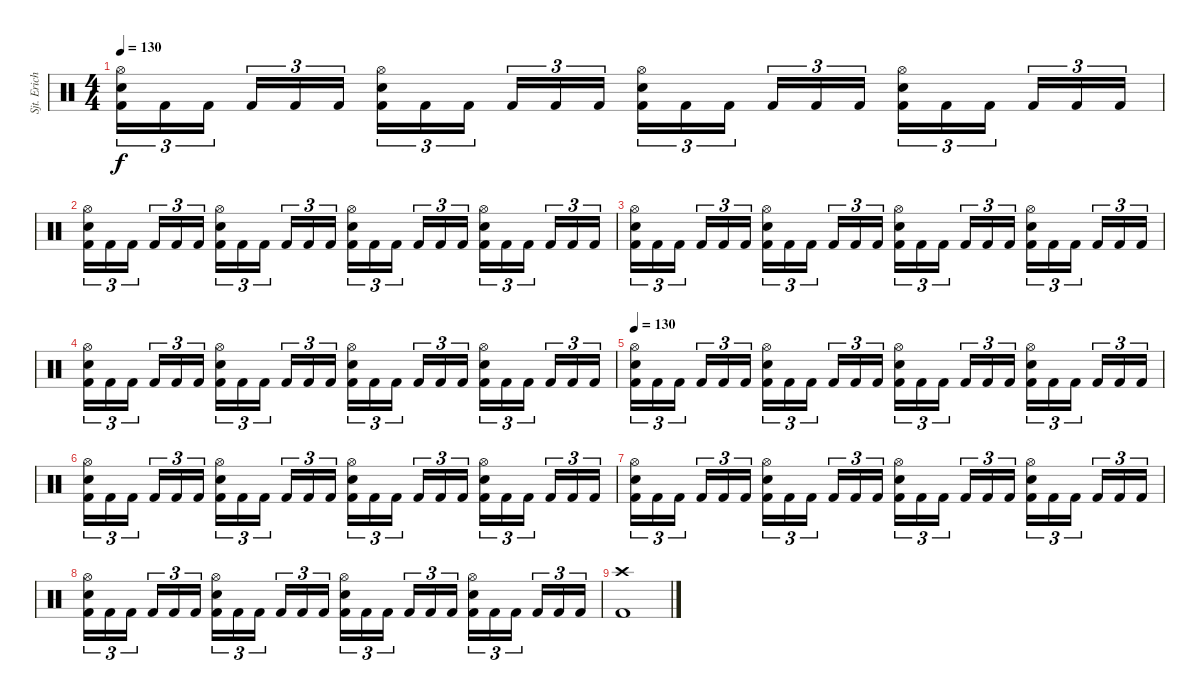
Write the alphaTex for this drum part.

\track ("Sjt. Erichsen" "Sjt. Erich") {instrument percussion}
\staff {score}
\articulation defaults
\ts (4 4)
\tempo 130
\clef neutral
\ks c
("Hi-Hat (open)" "Electric Snare (hit)" "Kick (hit) 2").16{tu (3 2) dy f} "Kick (hit) 2".16{tu (3 2)} "Kick (hit) 2".16{tu (3 2) beam splitsecondary} "Kick (hit) 2".16{tu (3 2)} "Kick (hit) 2".16{tu (3 2)} "Kick (hit) 2".16{tu (3 2)} ("Hi-Hat (open)" "Electric Snare (hit)" "Kick (hit) 2").16{tu (3 2)} "Kick (hit) 2".16{tu (3 2)} "Kick (hit) 2".16{tu (3 2) beam splitsecondary} "Kick (hit) 2".16{tu (3 2)} "Kick (hit) 2".16{tu (3 2)} "Kick (hit) 2".16{tu (3 2)} ("Hi-Hat (open)" "Electric Snare (hit)" "Kick (hit) 2").16{tu (3 2)} "Kick (hit) 2".16{tu (3 2)} "Kick (hit) 2".16{tu (3 2) beam splitsecondary} "Kick (hit) 2".16{tu (3 2)} "Kick (hit) 2".16{tu (3 2)} "Kick (hit) 2".16{tu (3 2)} ("Hi-Hat (open)" "Electric Snare (hit)" "Kick (hit) 2").16{tu (3 2)} "Kick (hit) 2".16{tu (3 2)} "Kick (hit) 2".16{tu (3 2) beam splitsecondary} "Kick (hit) 2".16{tu (3 2)} "Kick (hit) 2".16{tu (3 2)} "Kick (hit) 2".16{tu (3 2)} |
("Hi-Hat (open)" "Electric Snare (hit)" "Kick (hit) 2").16{tu (3 2)} "Kick (hit) 2".16{tu (3 2)} "Kick (hit) 2".16{tu (3 2) beam splitsecondary} "Kick (hit) 2".16{tu (3 2)} "Kick (hit) 2".16{tu (3 2)} "Kick (hit) 2".16{tu (3 2)} ("Hi-Hat (open)" "Electric Snare (hit)" "Kick (hit) 2").16{tu (3 2)} "Kick (hit) 2".16{tu (3 2)} "Kick (hit) 2".16{tu (3 2) beam splitsecondary} "Kick (hit) 2".16{tu (3 2)} "Kick (hit) 2".16{tu (3 2)} "Kick (hit) 2".16{tu (3 2)} ("Hi-Hat (open)" "Electric Snare (hit)" "Kick (hit) 2").16{tu (3 2)} "Kick (hit) 2".16{tu (3 2)} "Kick (hit) 2".16{tu (3 2) beam splitsecondary} "Kick (hit) 2".16{tu (3 2)} "Kick (hit) 2".16{tu (3 2)} "Kick (hit) 2".16{tu (3 2)} ("Hi-Hat (open)" "Electric Snare (hit)" "Kick (hit) 2").16{tu (3 2)} "Kick (hit) 2".16{tu (3 2)} "Kick (hit) 2".16{tu (3 2) beam splitsecondary} "Kick (hit) 2".16{tu (3 2)} "Kick (hit) 2".16{tu (3 2)} "Kick (hit) 2".16{tu (3 2)} |
("Hi-Hat (open)" "Electric Snare (hit)" "Kick (hit) 2").16{tu (3 2)} "Kick (hit) 2".16{tu (3 2)} "Kick (hit) 2".16{tu (3 2) beam splitsecondary} "Kick (hit) 2".16{tu (3 2)} "Kick (hit) 2".16{tu (3 2)} "Kick (hit) 2".16{tu (3 2)} ("Hi-Hat (open)" "Electric Snare (hit)" "Kick (hit) 2").16{tu (3 2)} "Kick (hit) 2".16{tu (3 2)} "Kick (hit) 2".16{tu (3 2) beam splitsecondary} "Kick (hit) 2".16{tu (3 2)} "Kick (hit) 2".16{tu (3 2)} "Kick (hit) 2".16{tu (3 2)} ("Hi-Hat (open)" "Electric Snare (hit)" "Kick (hit) 2").16{tu (3 2)} "Kick (hit) 2".16{tu (3 2)} "Kick (hit) 2".16{tu (3 2) beam splitsecondary} "Kick (hit) 2".16{tu (3 2)} "Kick (hit) 2".16{tu (3 2)} "Kick (hit) 2".16{tu (3 2)} ("Hi-Hat (open)" "Electric Snare (hit)" "Kick (hit) 2").16{tu (3 2)} "Kick (hit) 2".16{tu (3 2)} "Kick (hit) 2".16{tu (3 2) beam splitsecondary} "Kick (hit) 2".16{tu (3 2)} "Kick (hit) 2".16{tu (3 2)} "Kick (hit) 2".16{tu (3 2)} |
("Hi-Hat (open)" "Electric Snare (hit)" "Kick (hit) 2").16{tu (3 2)} "Kick (hit) 2".16{tu (3 2)} "Kick (hit) 2".16{tu (3 2) beam splitsecondary} "Kick (hit) 2".16{tu (3 2)} "Kick (hit) 2".16{tu (3 2)} "Kick (hit) 2".16{tu (3 2)} ("Hi-Hat (open)" "Electric Snare (hit)" "Kick (hit) 2").16{tu (3 2)} "Kick (hit) 2".16{tu (3 2)} "Kick (hit) 2".16{tu (3 2) beam splitsecondary} "Kick (hit) 2".16{tu (3 2)} "Kick (hit) 2".16{tu (3 2)} "Kick (hit) 2".16{tu (3 2)} ("Hi-Hat (open)" "Electric Snare (hit)" "Kick (hit) 2").16{tu (3 2)} "Kick (hit) 2".16{tu (3 2)} "Kick (hit) 2".16{tu (3 2) beam splitsecondary} "Kick (hit) 2".16{tu (3 2)} "Kick (hit) 2".16{tu (3 2)} "Kick (hit) 2".16{tu (3 2)} ("Hi-Hat (open)" "Electric Snare (hit)" "Kick (hit) 2").16{tu (3 2)} "Kick (hit) 2".16{tu (3 2)} "Kick (hit) 2".16{tu (3 2) beam splitsecondary} "Kick (hit) 2".16{tu (3 2)} "Kick (hit) 2".16{tu (3 2)} "Kick (hit) 2".16{tu (3 2)} |
\tempo 130
("Hi-Hat (open)" "Electric Snare (hit)" "Kick (hit) 2").16{tu (3 2)} "Kick (hit) 2".16{tu (3 2)} "Kick (hit) 2".16{tu (3 2) beam splitsecondary} "Kick (hit) 2".16{tu (3 2)} "Kick (hit) 2".16{tu (3 2)} "Kick (hit) 2".16{tu (3 2)} ("Hi-Hat (open)" "Electric Snare (hit)" "Kick (hit) 2").16{tu (3 2)} "Kick (hit) 2".16{tu (3 2)} "Kick (hit) 2".16{tu (3 2) beam splitsecondary} "Kick (hit) 2".16{tu (3 2)} "Kick (hit) 2".16{tu (3 2)} "Kick (hit) 2".16{tu (3 2)} ("Hi-Hat (open)" "Electric Snare (hit)" "Kick (hit) 2").16{tu (3 2)} "Kick (hit) 2".16{tu (3 2)} "Kick (hit) 2".16{tu (3 2) beam splitsecondary} "Kick (hit) 2".16{tu (3 2)} "Kick (hit) 2".16{tu (3 2)} "Kick (hit) 2".16{tu (3 2)} ("Hi-Hat (open)" "Electric Snare (hit)" "Kick (hit) 2").16{tu (3 2)} "Kick (hit) 2".16{tu (3 2)} "Kick (hit) 2".16{tu (3 2) beam splitsecondary} "Kick (hit) 2".16{tu (3 2)} "Kick (hit) 2".16{tu (3 2)} "Kick (hit) 2".16{tu (3 2)} |
("Hi-Hat (open)" "Electric Snare (hit)" "Kick (hit) 2").16{tu (3 2)} "Kick (hit) 2".16{tu (3 2)} "Kick (hit) 2".16{tu (3 2) beam splitsecondary} "Kick (hit) 2".16{tu (3 2)} "Kick (hit) 2".16{tu (3 2)} "Kick (hit) 2".16{tu (3 2)} ("Hi-Hat (open)" "Electric Snare (hit)" "Kick (hit) 2").16{tu (3 2)} "Kick (hit) 2".16{tu (3 2)} "Kick (hit) 2".16{tu (3 2) beam splitsecondary} "Kick (hit) 2".16{tu (3 2)} "Kick (hit) 2".16{tu (3 2)} "Kick (hit) 2".16{tu (3 2)} ("Hi-Hat (open)" "Electric Snare (hit)" "Kick (hit) 2").16{tu (3 2)} "Kick (hit) 2".16{tu (3 2)} "Kick (hit) 2".16{tu (3 2) beam splitsecondary} "Kick (hit) 2".16{tu (3 2)} "Kick (hit) 2".16{tu (3 2)} "Kick (hit) 2".16{tu (3 2)} ("Hi-Hat (open)" "Electric Snare (hit)" "Kick (hit) 2").16{tu (3 2)} "Kick (hit) 2".16{tu (3 2)} "Kick (hit) 2".16{tu (3 2) beam splitsecondary} "Kick (hit) 2".16{tu (3 2)} "Kick (hit) 2".16{tu (3 2)} "Kick (hit) 2".16{tu (3 2)} |
("Hi-Hat (open)" "Electric Snare (hit)" "Kick (hit) 2").16{tu (3 2)} "Kick (hit) 2".16{tu (3 2)} "Kick (hit) 2".16{tu (3 2) beam splitsecondary} "Kick (hit) 2".16{tu (3 2)} "Kick (hit) 2".16{tu (3 2)} "Kick (hit) 2".16{tu (3 2)} ("Hi-Hat (open)" "Electric Snare (hit)" "Kick (hit) 2").16{tu (3 2)} "Kick (hit) 2".16{tu (3 2)} "Kick (hit) 2".16{tu (3 2) beam splitsecondary} "Kick (hit) 2".16{tu (3 2)} "Kick (hit) 2".16{tu (3 2)} "Kick (hit) 2".16{tu (3 2)} ("Hi-Hat (open)" "Electric Snare (hit)" "Kick (hit) 2").16{tu (3 2)} "Kick (hit) 2".16{tu (3 2)} "Kick (hit) 2".16{tu (3 2) beam splitsecondary} "Kick (hit) 2".16{tu (3 2)} "Kick (hit) 2".16{tu (3 2)} "Kick (hit) 2".16{tu (3 2)} ("Hi-Hat (open)" "Electric Snare (hit)" "Kick (hit) 2").16{tu (3 2)} "Kick (hit) 2".16{tu (3 2)} "Kick (hit) 2".16{tu (3 2) beam splitsecondary} "Kick (hit) 2".16{tu (3 2)} "Kick (hit) 2".16{tu (3 2)} "Kick (hit) 2".16{tu (3 2)} |
("Hi-Hat (open)" "Electric Snare (hit)" "Kick (hit) 2").16{tu (3 2)} "Kick (hit) 2".16{tu (3 2)} "Kick (hit) 2".16{tu (3 2) beam splitsecondary} "Kick (hit) 2".16{tu (3 2)} "Kick (hit) 2".16{tu (3 2)} "Kick (hit) 2".16{tu (3 2)} ("Hi-Hat (open)" "Electric Snare (hit)" "Kick (hit) 2").16{tu (3 2)} "Kick (hit) 2".16{tu (3 2)} "Kick (hit) 2".16{tu (3 2) beam splitsecondary} "Kick (hit) 2".16{tu (3 2)} "Kick (hit) 2".16{tu (3 2)} "Kick (hit) 2".16{tu (3 2)} ("Hi-Hat (open)" "Electric Snare (hit)" "Kick (hit) 2").16{tu (3 2)} "Kick (hit) 2".16{tu (3 2)} "Kick (hit) 2".16{tu (3 2) beam splitsecondary} "Kick (hit) 2".16{tu (3 2)} "Kick (hit) 2".16{tu (3 2)} "Kick (hit) 2".16{tu (3 2)} ("Hi-Hat (open)" "Electric Snare (hit)" "Kick (hit) 2").16{tu (3 2)} "Kick (hit) 2".16{tu (3 2)} "Kick (hit) 2".16{tu (3 2) beam splitsecondary} "Kick (hit) 2".16{tu (3 2)} "Kick (hit) 2".16{tu (3 2)} "Kick (hit) 2".16{tu (3 2)} |
("Crash high (hit)" "Kick (hit) 2").1
